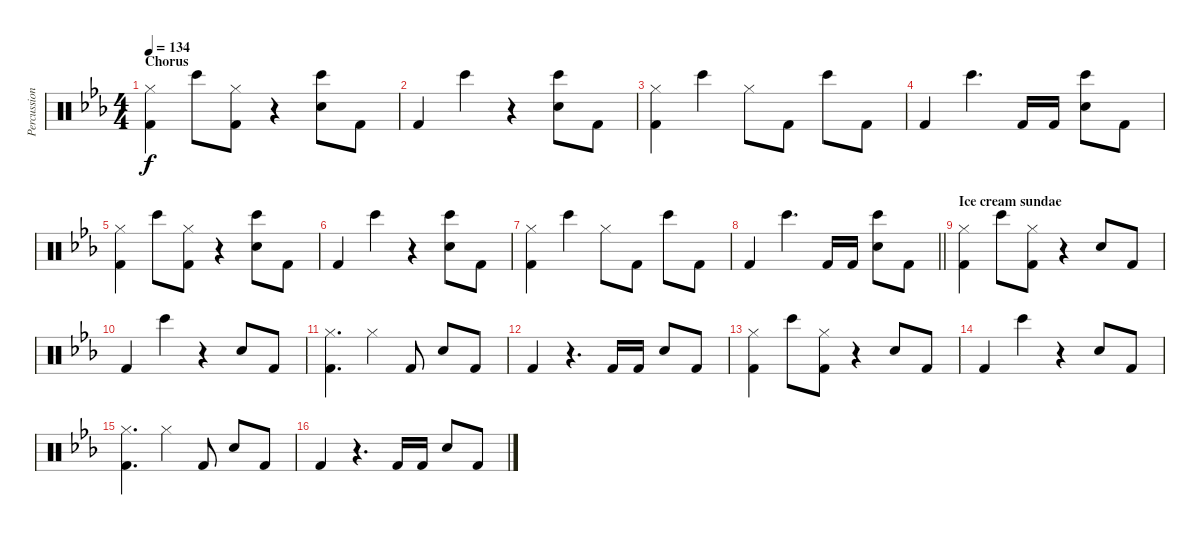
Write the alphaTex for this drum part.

\track ("Percussion" "Percussion") {instrument percussion}
\staff {score}
\articulation defaults
\ts (4 4)
\section ("" "Chorus")
\tempo 134
\clef neutral
\ks eb
("Hi-Hat (closed)" "Kick (hit) 2").4{dy f} "Bongo High (hit)".8 ("Hi-Hat (closed)" "Kick (hit) 2").8 r.4 ("Hand Clap (hit)" "Bongo High (hit)").8 "Kick (hit) 2".8 |
"Kick (hit) 2".4 "Bongo High (hit)".4 r.4 ("Hand Clap (hit)" "Bongo High (hit)").8 "Kick (hit) 2".8 |
("Hi-Hat (closed)" "Kick (hit) 2").4 "Bongo High (hit)".4 "Hi-Hat (closed)".8 "Kick (hit) 2".8 "Bongo High (hit)".8 "Kick (hit) 2".8 |
"Kick (hit) 2".4 "Bongo High (hit)".4{d} "Kick (hit) 2".16 "Kick (hit) 2".16 ("Hand Clap (hit)" "Bongo High (hit)").8 "Kick (hit) 2".8 |
("Hi-Hat (closed)" "Kick (hit) 2").4 "Bongo High (hit)".8 ("Hi-Hat (closed)" "Kick (hit) 2").8 r.4 ("Hand Clap (hit)" "Bongo High (hit)").8 "Kick (hit) 2".8 |
"Kick (hit) 2".4 "Bongo High (hit)".4 r.4 ("Hand Clap (hit)" "Bongo High (hit)").8 "Kick (hit) 2".8 |
("Hi-Hat (closed)" "Kick (hit) 2").4 "Bongo High (hit)".4 "Hi-Hat (closed)".8 "Kick (hit) 2".8 "Bongo High (hit)".8 "Kick (hit) 2".8 |
\barLineRight lightlight "Kick (hit) 2".4 "Bongo High (hit)".4{d} "Kick (hit) 2".16 "Kick (hit) 2".16
("Hand Clap (hit)" "Bongo High (hit)").8 "Kick (hit) 2".8 |
\section ("" "Ice cream sundae")
("Hi-Hat (closed)" "Kick (hit) 2").4 "Bongo High (hit)".8 ("Hi-Hat (closed)" "Kick (hit) 2").8 r.4 "Hand Clap (hit)".8 "Kick (hit) 2".8 |
"Kick (hit) 2".4 "Bongo High (hit)".4 r.4 "Hand Clap (hit)".8 "Kick (hit) 2".8 |
("Hi-Hat (closed)" "Kick (hit) 2").4{d} "Hi-Hat (closed)".4 "Kick (hit) 2".8 "Hand Clap (hit)".8 "Kick (hit) 2".8 |
"Kick (hit) 2".4 r.4{d} "Kick (hit) 2".16 "Kick (hit) 2".16 "Hand Clap (hit)".8 "Kick (hit) 2".8 |
("Hi-Hat (closed)" "Kick (hit) 2").4 "Bongo High (hit)".8 ("Hi-Hat (closed)" "Kick (hit) 2").8 r.4 "Hand Clap (hit)".8 "Kick (hit) 2".8 |
"Kick (hit) 2".4 "Bongo High (hit)".4 r.4 "Hand Clap (hit)".8 "Kick (hit) 2".8 |
("Hi-Hat (closed)" "Kick (hit) 2").4{d} "Hi-Hat (closed)".4 "Kick (hit) 2".8 "Hand Clap (hit)".8 "Kick (hit) 2".8 |
"Kick (hit) 2".4 r.4{d} "Kick (hit) 2".16 "Kick (hit) 2".16 "Hand Clap (hit)".8 "Kick (hit) 2".8
